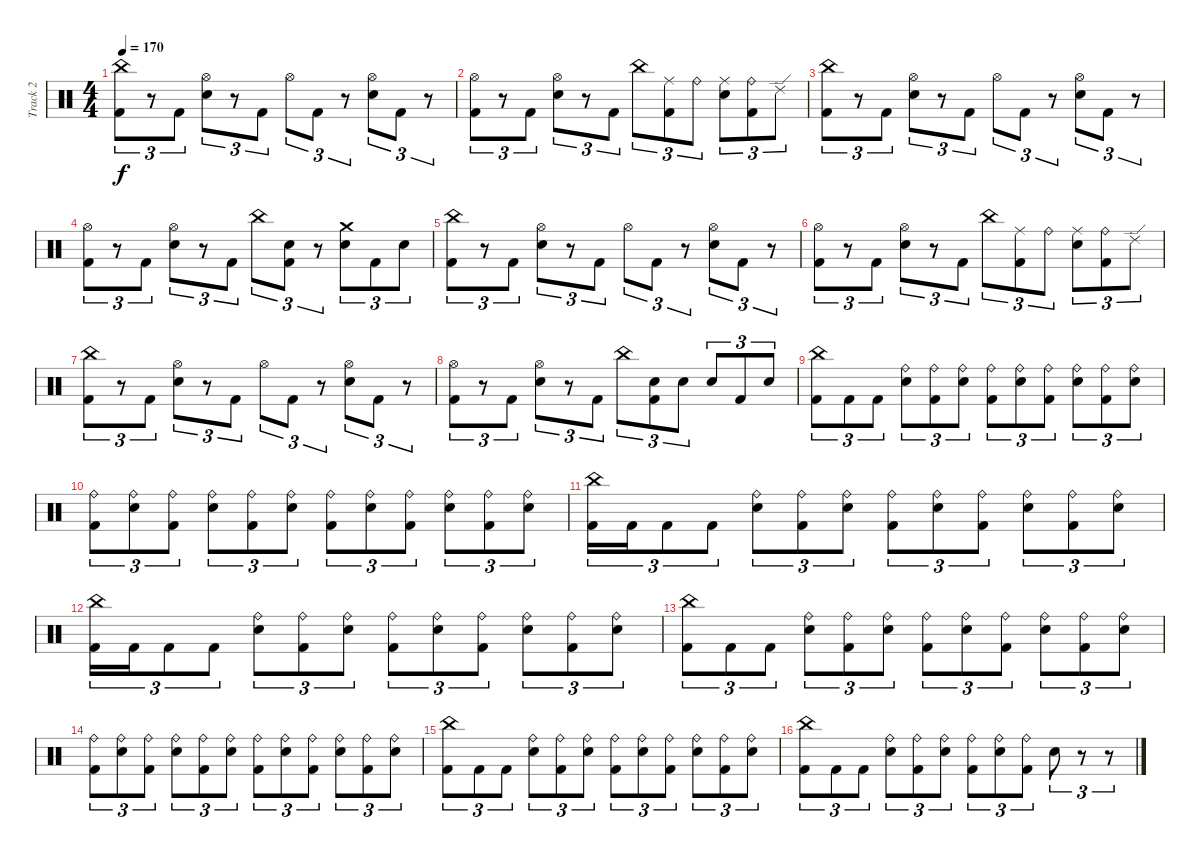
\track ("Track 2" "Track 2") {instrument percussion}
\staff {score}
\articulation defaults
\ts (4 4)
\tempo 170
\clef neutral
\ks c
("China (hit)" "Kick (hit) 2").8{tu (3 2) dy f} r.8{tu (3 2)} "Kick (hit) 2".8{tu (3 2)} ("Hi-Hat (open)" "Electric Snare (hit)").8{tu (3 2)} r.8{tu (3 2)} "Kick (hit) 2".8{tu (3 2)} "Hi-Hat (open)".8{tu (3 2)} "Kick (hit) 2".8{tu (3 2)} r.8{tu (3 2)} ("Hi-Hat (open)" "Electric Snare (hit)").8{tu (3 2)} "Kick (hit) 2".8{tu (3 2)} r.8{tu (3 2)} |
("Hi-Hat (open)" "Kick (hit) 2").8{tu (3 2)} r.8{tu (3 2)} "Kick (hit) 2".8{tu (3 2)} ("Hi-Hat (open)" "Electric Snare (hit)").8{tu (3 2)} r.8{tu (3 2)} "Kick (hit) 2".8{tu (3 2)} "China (hit)".8{tu (3 2)} ("Ride (middle)" "Kick (hit) 2").8{tu (3 2)} "Ride (bell)".8{tu (3 2)} ("Ride (middle)" "Electric Snare (hit)").8{tu (3 2)} ("Ride (bell)" "Kick (hit) 2").8{tu (3 2)} "Ride (edge) 2".8{tu (3 2)} |
("China (hit)" "Kick (hit) 2").8{tu (3 2)} r.8{tu (3 2)} "Kick (hit) 2".8{tu (3 2)} ("Hi-Hat (open)" "Electric Snare (hit)").8{tu (3 2)} r.8{tu (3 2)} "Kick (hit) 2".8{tu (3 2)} "Hi-Hat (open)".8{tu (3 2)} "Kick (hit) 2".8{tu (3 2)} r.8{tu (3 2)} ("Hi-Hat (open)" "Electric Snare (hit)").8{tu (3 2)} "Kick (hit) 2".8{tu (3 2)} r.8{tu (3 2)} |
("Hi-Hat (open)" "Kick (hit) 2").8{tu (3 2)} r.8{tu (3 2)} "Kick (hit) 2".8{tu (3 2)} ("Hi-Hat (open)" "Electric Snare (hit)").8{tu (3 2)} r.8{tu (3 2)} "Kick (hit) 2".8{tu (3 2)} "China (hit)".8{tu (3 2)} ("Electric Snare (hit)" "Kick (hit) 2").8{tu (3 2)} r.8{tu (3 2)} ("Crash medium (hit)" "Electric Snare (hit)").8{tu (3 2)} "Kick (hit) 2".8{tu (3 2)} "Electric Snare (hit)".8{tu (3 2)} |
("China (hit)" "Kick (hit) 2").8{tu (3 2)} r.8{tu (3 2)} "Kick (hit) 2".8{tu (3 2)} ("Hi-Hat (open)" "Electric Snare (hit)").8{tu (3 2)} r.8{tu (3 2)} "Kick (hit) 2".8{tu (3 2)} "Hi-Hat (open)".8{tu (3 2)} "Kick (hit) 2".8{tu (3 2)} r.8{tu (3 2)} ("Hi-Hat (open)" "Electric Snare (hit)").8{tu (3 2)} "Kick (hit) 2".8{tu (3 2)} r.8{tu (3 2)} |
("Hi-Hat (open)" "Kick (hit) 2").8{tu (3 2)} r.8{tu (3 2)} "Kick (hit) 2".8{tu (3 2)} ("Hi-Hat (open)" "Electric Snare (hit)").8{tu (3 2)} r.8{tu (3 2)} "Kick (hit) 2".8{tu (3 2)} "China (hit)".8{tu (3 2)} ("Ride (middle)" "Kick (hit) 2").8{tu (3 2)} "Ride (bell)".8{tu (3 2)} ("Ride (middle)" "Electric Snare (hit)").8{tu (3 2)} ("Ride (bell)" "Kick (hit) 2").8{tu (3 2)} "Ride (edge) 2".8{tu (3 2)} |
("China (hit)" "Kick (hit) 2").8{tu (3 2)} r.8{tu (3 2)} "Kick (hit) 2".8{tu (3 2)} ("Hi-Hat (open)" "Electric Snare (hit)").8{tu (3 2)} r.8{tu (3 2)} "Kick (hit) 2".8{tu (3 2)} "Hi-Hat (open)".8{tu (3 2)} "Kick (hit) 2".8{tu (3 2)} r.8{tu (3 2)} ("Hi-Hat (open)" "Electric Snare (hit)").8{tu (3 2)} "Kick (hit) 2".8{tu (3 2)} r.8{tu (3 2)} |
("Hi-Hat (open)" "Kick (hit) 2").8{tu (3 2)} r.8{tu (3 2)} "Kick (hit) 2".8{tu (3 2)} ("Hi-Hat (open)" "Electric Snare (hit)").8{tu (3 2)} r.8{tu (3 2)} "Kick (hit) 2".8{tu (3 2)} "China (hit)".8{tu (3 2)} ("Electric Snare (hit)" "Kick (hit) 2").8{tu (3 2)} "Electric Snare (hit)".8{tu (3 2)} "Electric Snare (hit)".8{tu (3 2)} "Kick (hit) 2".8{tu (3 2)} "Electric Snare (hit)".8{tu (3 2)} |
("China (hit)" "Kick (hit) 2").8{tu (3 2)} "Kick (hit) 2".8{tu (3 2)} "Kick (hit) 2".8{tu (3 2)} ("Ride (bell)" "Electric Snare (hit)").8{tu (3 2)} ("Ride (bell)" "Kick (hit) 2").8{tu (3 2)} ("Ride (bell)" "Electric Snare (hit)").8{tu (3 2)} ("Ride (bell)" "Kick (hit) 2").8{tu (3 2)} ("Ride (bell)" "Electric Snare (hit)").8{tu (3 2)} ("Ride (bell)" "Kick (hit) 2").8{tu (3 2)} ("Ride (bell)" "Electric Snare (hit)").8{tu (3 2)} ("Ride (bell)" "Kick (hit) 2").8{tu (3 2)} ("Ride (bell)" "Electric Snare (hit)").8{tu (3 2)} |
("Ride (bell)" "Kick (hit) 2").8{tu (3 2)} ("Ride (bell)" "Electric Snare (hit)").8{tu (3 2)} ("Ride (bell)" "Kick (hit) 2").8{tu (3 2)} ("Ride (bell)" "Electric Snare (hit)").8{tu (3 2)} ("Ride (bell)" "Kick (hit) 2").8{tu (3 2)} ("Ride (bell)" "Electric Snare (hit)").8{tu (3 2)} ("Ride (bell)" "Kick (hit) 2").8{tu (3 2)} ("Ride (bell)" "Electric Snare (hit)").8{tu (3 2)} ("Ride (bell)" "Kick (hit) 2").8{tu (3 2)} ("Ride (bell)" "Electric Snare (hit)").8{tu (3 2)} ("Ride (bell)" "Kick (hit) 2").8{tu (3 2)} ("Ride (bell)" "Electric Snare (hit)").8{tu (3 2)} |
("China (hit)" "Kick (hit) 2").16{tu (3 2)} "Kick (hit) 2".16{tu (3 2)} "Kick (hit) 2".8{tu (3 2)} "Kick (hit) 2".8{tu (3 2)} ("Ride (bell)" "Electric Snare (hit)").8{tu (3 2)} ("Ride (bell)" "Kick (hit) 2").8{tu (3 2)} ("Ride (bell)" "Electric Snare (hit)").8{tu (3 2)} ("Ride (bell)" "Kick (hit) 2").8{tu (3 2)} ("Ride (bell)" "Electric Snare (hit)").8{tu (3 2)} ("Ride (bell)" "Kick (hit) 2").8{tu (3 2)} ("Ride (bell)" "Electric Snare (hit)").8{tu (3 2)} ("Ride (bell)" "Kick (hit) 2").8{tu (3 2)} ("Ride (bell)" "Electric Snare (hit)").8{tu (3 2)} |
("China (hit)" "Kick (hit) 2").16{tu (3 2)} "Kick (hit) 2".16{tu (3 2)} "Kick (hit) 2".8{tu (3 2)} "Kick (hit) 2".8{tu (3 2)} ("Ride (bell)" "Electric Snare (hit)").8{tu (3 2)} ("Ride (bell)" "Kick (hit) 2").8{tu (3 2)} ("Ride (bell)" "Electric Snare (hit)").8{tu (3 2)} ("Ride (bell)" "Kick (hit) 2").8{tu (3 2)} ("Ride (bell)" "Electric Snare (hit)").8{tu (3 2)} ("Ride (bell)" "Kick (hit) 2").8{tu (3 2)} ("Ride (bell)" "Electric Snare (hit)").8{tu (3 2)} ("Ride (bell)" "Kick (hit) 2").8{tu (3 2)} ("Ride (bell)" "Electric Snare (hit)").8{tu (3 2)} |
("China (hit)" "Kick (hit) 2").8{tu (3 2)} "Kick (hit) 2".8{tu (3 2)} "Kick (hit) 2".8{tu (3 2)} ("Ride (bell)" "Electric Snare (hit)").8{tu (3 2)} ("Ride (bell)" "Kick (hit) 2").8{tu (3 2)} ("Ride (bell)" "Electric Snare (hit)").8{tu (3 2)} ("Ride (bell)" "Kick (hit) 2").8{tu (3 2)} ("Ride (bell)" "Electric Snare (hit)").8{tu (3 2)} ("Ride (bell)" "Kick (hit) 2").8{tu (3 2)} ("Ride (bell)" "Electric Snare (hit)").8{tu (3 2)} ("Ride (bell)" "Kick (hit) 2").8{tu (3 2)} ("Ride (bell)" "Electric Snare (hit)").8{tu (3 2)} |
("Ride (bell)" "Kick (hit) 2").8{tu (3 2)} ("Ride (bell)" "Electric Snare (hit)").8{tu (3 2)} ("Ride (bell)" "Kick (hit) 2").8{tu (3 2)} ("Ride (bell)" "Electric Snare (hit)").8{tu (3 2)} ("Ride (bell)" "Kick (hit) 2").8{tu (3 2)} ("Ride (bell)" "Electric Snare (hit)").8{tu (3 2)} ("Ride (bell)" "Kick (hit) 2").8{tu (3 2)} ("Ride (bell)" "Electric Snare (hit)").8{tu (3 2)} ("Ride (bell)" "Kick (hit) 2").8{tu (3 2)} ("Ride (bell)" "Electric Snare (hit)").8{tu (3 2)} ("Ride (bell)" "Kick (hit) 2").8{tu (3 2)} ("Ride (bell)" "Electric Snare (hit)").8{tu (3 2)} |
("China (hit)" "Kick (hit) 2").8{tu (3 2)} "Kick (hit) 2".8{tu (3 2)} "Kick (hit) 2".8{tu (3 2)} ("Ride (bell)" "Electric Snare (hit)").8{tu (3 2)} ("Ride (bell)" "Kick (hit) 2").8{tu (3 2)} ("Ride (bell)" "Electric Snare (hit)").8{tu (3 2)} ("Ride (bell)" "Kick (hit) 2").8{tu (3 2)} ("Ride (bell)" "Electric Snare (hit)").8{tu (3 2)} ("Ride (bell)" "Kick (hit) 2").8{tu (3 2)} ("Ride (bell)" "Electric Snare (hit)").8{tu (3 2)} ("Ride (bell)" "Kick (hit) 2").8{tu (3 2)} ("Ride (bell)" "Electric Snare (hit)").8{tu (3 2)} |
("China (hit)" "Kick (hit) 2").8{tu (3 2)} "Kick (hit) 2".8{tu (3 2)} "Kick (hit) 2".8{tu (3 2)} ("Ride (bell)" "Electric Snare (hit)").8{tu (3 2)} ("Ride (bell)" "Kick (hit) 2").8{tu (3 2)} ("Ride (bell)" "Electric Snare (hit)").8{tu (3 2)} ("Ride (bell)" "Kick (hit) 2").8{tu (3 2)} ("Ride (bell)" "Electric Snare (hit)").8{tu (3 2)} ("Ride (bell)" "Kick (hit) 2").8{tu (3 2)} "Electric Snare (hit)".8{tu (3 2)} r.8{tu (3 2)} r.8{tu (3 2)}
